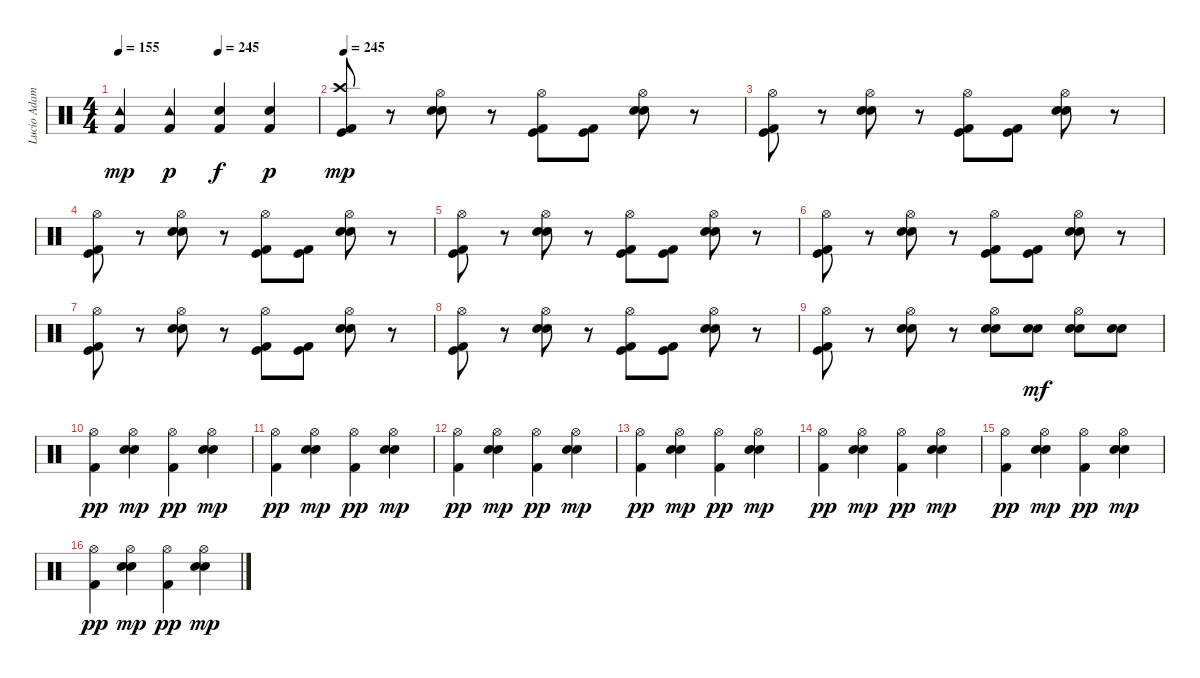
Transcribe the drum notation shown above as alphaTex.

\track ("Lucio Adamo (Bateria)" "Lucio Adam") {instrument percussion}
\staff {score}
\articulation defaults
\ts (4 4)
\tempo 155
\tempo (245 0.5)
\clef neutral
\ks c
("Kick (hit) 2" "Tambourine (hit)").4{dy mp} ("Tambourine (hit)" "Kick (hit) 2").4{dy p} ("Kick (hit) 2" "Electric Snare (hit)").4{dy f} ("Electric Snare (hit)" "Kick (hit) 2").4{dy p} |
\tempo 245
("Crash high (hit)" "Kick (hit)" "Kick (hit) 2").8{dy mp} r.8 ("Hi-Hat (open)" "Snare (hit) 2" "Electric Snare (hit)").8 r.8 ("Hi-Hat (open)" "Kick (hit) 2" "Kick (hit)").8 ("Kick (hit) 2" "Kick (hit)").8 ("Hi-Hat (open)" "Snare (hit) 2" "Electric Snare (hit)").8 r.8 |
("Hi-Hat (open)" "Kick (hit)" "Kick (hit) 2").8 r.8 ("Hi-Hat (open)" "Snare (hit) 2" "Electric Snare (hit)").8 r.8 ("Hi-Hat (open)" "Kick (hit) 2" "Kick (hit)").8 ("Kick (hit) 2" "Kick (hit)").8 ("Hi-Hat (open)" "Snare (hit) 2" "Electric Snare (hit)").8 r.8 |
("Hi-Hat (open)" "Kick (hit)" "Kick (hit) 2").8 r.8 ("Hi-Hat (open)" "Snare (hit) 2" "Electric Snare (hit)").8 r.8 ("Hi-Hat (open)" "Kick (hit) 2" "Kick (hit)").8 ("Kick (hit) 2" "Kick (hit)").8 ("Hi-Hat (open)" "Snare (hit) 2" "Electric Snare (hit)").8 r.8 |
("Hi-Hat (open)" "Kick (hit)" "Kick (hit) 2").8 r.8 ("Hi-Hat (open)" "Snare (hit) 2" "Electric Snare (hit)").8 r.8 ("Hi-Hat (open)" "Kick (hit) 2" "Kick (hit)").8 ("Kick (hit) 2" "Kick (hit)").8 ("Hi-Hat (open)" "Snare (hit) 2" "Electric Snare (hit)").8 r.8 |
("Hi-Hat (open)" "Kick (hit)" "Kick (hit) 2").8 r.8 ("Hi-Hat (open)" "Snare (hit) 2" "Electric Snare (hit)").8 r.8 ("Hi-Hat (open)" "Kick (hit) 2" "Kick (hit)").8 ("Kick (hit) 2" "Kick (hit)").8 ("Hi-Hat (open)" "Snare (hit) 2" "Electric Snare (hit)").8 r.8 |
("Hi-Hat (open)" "Kick (hit)" "Kick (hit) 2").8 r.8 ("Hi-Hat (open)" "Snare (hit) 2" "Electric Snare (hit)").8 r.8 ("Hi-Hat (open)" "Kick (hit) 2" "Kick (hit)").8 ("Kick (hit) 2" "Kick (hit)").8 ("Hi-Hat (open)" "Snare (hit) 2" "Electric Snare (hit)").8 r.8 |
("Hi-Hat (open)" "Kick (hit)" "Kick (hit) 2").8 r.8 ("Hi-Hat (open)" "Snare (hit) 2" "Electric Snare (hit)").8 r.8 ("Hi-Hat (open)" "Kick (hit) 2" "Kick (hit)").8 ("Kick (hit) 2" "Kick (hit)").8 ("Hi-Hat (open)" "Snare (hit) 2" "Electric Snare (hit)").8 r.8 |
("Hi-Hat (open)" "Kick (hit)" "Kick (hit) 2").8 r.8 ("Hi-Hat (open)" "Snare (hit) 2" "Electric Snare (hit)").8 r.8 ("Hi-Hat (open)" "Snare (hit) 2" "Electric Snare (hit)").8 ("Snare (hit) 2" "Electric Snare (hit)").8{dy mf} ("Hi-Hat (open)" "Snare (hit) 2" "Electric Snare (hit)").8 ("Snare (hit) 2" "Electric Snare (hit)").8 |
("Hi-Hat (open)" "Kick (hit) 2").4{dy pp} ("Hi-Hat (open)" "Electric Snare (hit)" "Snare (hit) 2").4{dy mp} ("Hi-Hat (open)" "Kick (hit) 2").4{dy pp} ("Hi-Hat (open)" "Electric Snare (hit)" "Snare (hit) 2").4{dy mp} |
("Hi-Hat (open)" "Kick (hit) 2").4{dy pp} ("Hi-Hat (open)" "Electric Snare (hit)" "Snare (hit) 2").4{dy mp} ("Hi-Hat (open)" "Kick (hit) 2").4{dy pp} ("Hi-Hat (open)" "Electric Snare (hit)" "Snare (hit) 2").4{dy mp} |
("Hi-Hat (open)" "Kick (hit) 2").4{dy pp} ("Hi-Hat (open)" "Electric Snare (hit)" "Snare (hit) 2").4{dy mp} ("Hi-Hat (open)" "Kick (hit) 2").4{dy pp} ("Hi-Hat (open)" "Electric Snare (hit)" "Snare (hit) 2").4{dy mp} |
("Hi-Hat (open)" "Kick (hit) 2").4{dy pp} ("Hi-Hat (open)" "Electric Snare (hit)" "Snare (hit) 2").4{dy mp} ("Hi-Hat (open)" "Kick (hit) 2").4{dy pp} ("Hi-Hat (open)" "Electric Snare (hit)" "Snare (hit) 2").4{dy mp} |
("Hi-Hat (open)" "Kick (hit) 2").4{dy pp} ("Hi-Hat (open)" "Electric Snare (hit)" "Snare (hit) 2").4{dy mp} ("Hi-Hat (open)" "Kick (hit) 2").4{dy pp} ("Hi-Hat (open)" "Electric Snare (hit)" "Snare (hit) 2").4{dy mp} |
("Hi-Hat (open)" "Kick (hit) 2").4{dy pp} ("Hi-Hat (open)" "Electric Snare (hit)" "Snare (hit) 2").4{dy mp} ("Hi-Hat (open)" "Kick (hit) 2").4{dy pp} ("Hi-Hat (open)" "Electric Snare (hit)" "Snare (hit) 2").4{dy mp} |
("Hi-Hat (open)" "Kick (hit) 2").4{dy pp} ("Hi-Hat (open)" "Electric Snare (hit)" "Snare (hit) 2").4{dy mp} ("Hi-Hat (open)" "Kick (hit) 2").4{dy pp} ("Hi-Hat (open)" "Electric Snare (hit)" "Snare (hit) 2").4{dy mp}
